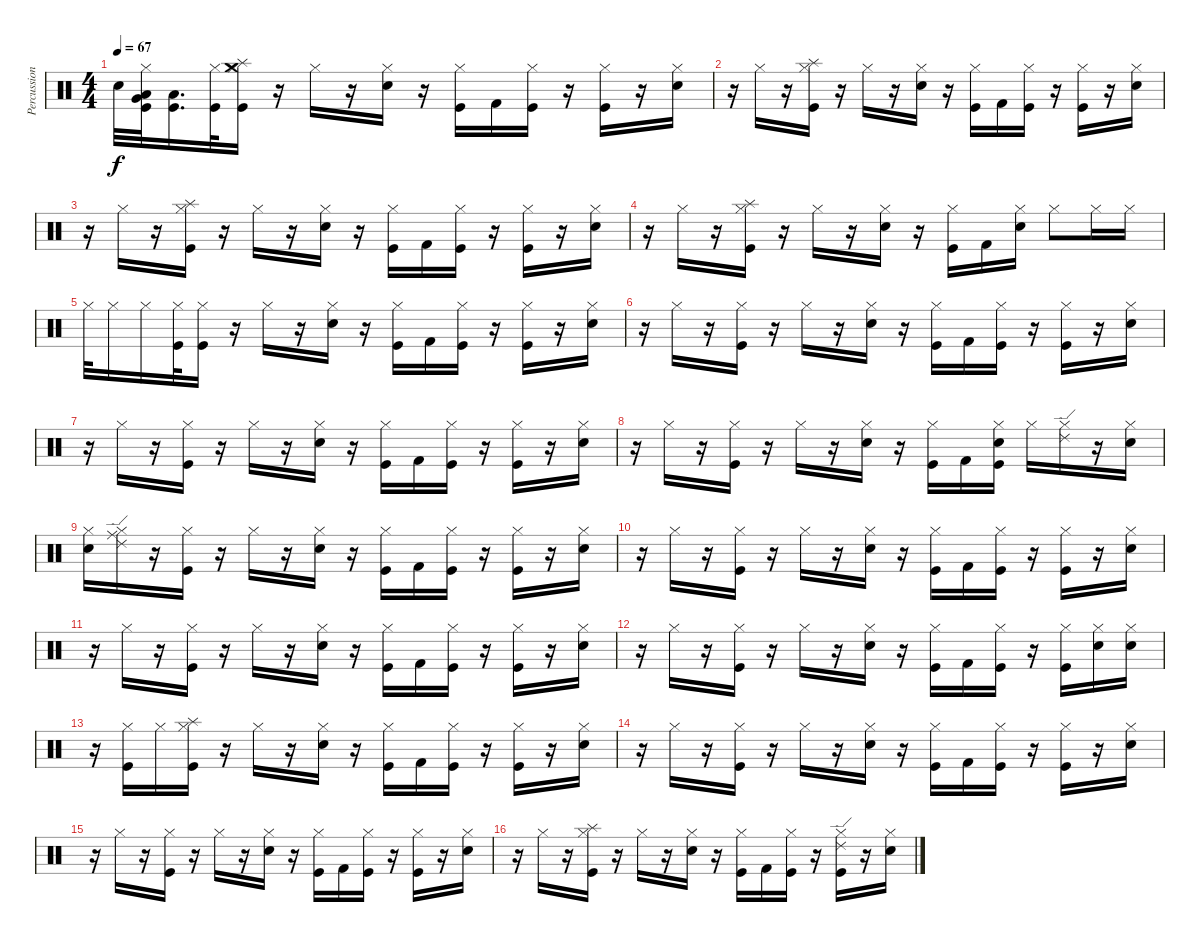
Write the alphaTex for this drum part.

\track ("Percussion" "Percussion") {instrument percussion}
\staff {score}
\articulation defaults
\ts (4 4)
\tempo 67
\clef neutral
\ks c "Snare (hit)"{t}.32{dy f}
("Kick (hit)" "Very Low Tom (hit)" "Hi-Hat (closed)" "Low Tom (hit)").32 ("Kick (hit)" "Low Tom (hit)").16{d} ("Kick (hit)" "Hi-Hat (closed)").32 ("Hi-Hat (closed)" "Kick (hit)" "Crash medium (hit)" "Splash (hit)").16 r.16 "Hi-Hat (closed)".16 r.16 ("Hi-Hat (closed)" "Electric Snare (hit)").16 r.16 ("Hi-Hat (closed)" "Kick (hit)").16 "Kick (hit) 2".16 ("Hi-Hat (closed)" "Kick (hit)").16 r.16 ("Hi-Hat (closed)" "Kick (hit)").16 r.16 ("Hi-Hat (closed)" "Electric Snare (hit)").16 |
r.16 "Hi-Hat (closed)".16 r.16 ("Hi-Hat (closed)" "Kick (hit)" "Splash (hit)").16 r.16 "Hi-Hat (closed)".16 r.16 ("Hi-Hat (closed)" "Electric Snare (hit)").16 r.16 ("Hi-Hat (closed)" "Kick (hit)").16 "Kick (hit) 2".16 ("Hi-Hat (closed)" "Kick (hit)").16 r.16 ("Hi-Hat (closed)" "Kick (hit)").16 r.16 ("Hi-Hat (closed)" "Electric Snare (hit)").16 |
r.16 "Hi-Hat (closed)".16 r.16 ("Hi-Hat (closed)" "Kick (hit)" "Splash (hit)").16 r.16 "Hi-Hat (closed)".16 r.16 ("Hi-Hat (closed)" "Electric Snare (hit)").16 r.16 ("Hi-Hat (closed)" "Kick (hit)").16 "Kick (hit) 2".16 ("Hi-Hat (closed)" "Kick (hit)").16 r.16 ("Hi-Hat (closed)" "Kick (hit)").16 r.16 ("Hi-Hat (closed)" "Electric Snare (hit)").16 |
r.16 "Hi-Hat (closed)".16 r.16 ("Hi-Hat (closed)" "Kick (hit)" "Splash (hit)").16 r.16 "Hi-Hat (closed)".16 r.16 ("Hi-Hat (closed)" "Electric Snare (hit)").16 r.16 ("Hi-Hat (closed)" "Kick (hit)").16 "Kick (hit) 2".16 ("Hi-Hat (closed)" "Electric Snare (hit)").16 "Hi-Hat (closed)".8 "Hi-Hat (closed)".16 "Hi-Hat (closed)".16 |
"Hi-Hat (closed)".32 "Hi-Hat (closed)".16 "Hi-Hat (closed)".16 ("Hi-Hat (closed)" "Kick (hit)").32 ("Hi-Hat (closed)" "Kick (hit)").16 r.16 "Hi-Hat (closed)".16 r.16 ("Hi-Hat (closed)" "Electric Snare (hit)").16 r.16 ("Hi-Hat (closed)" "Kick (hit)").16 "Kick (hit) 2".16 ("Hi-Hat (closed)" "Kick (hit)").16 r.16 ("Hi-Hat (closed)" "Kick (hit)").16 r.16 ("Hi-Hat (closed)" "Electric Snare (hit)").16 |
r.16 "Hi-Hat (closed)".16 r.16 ("Hi-Hat (closed)" "Kick (hit)").16 r.16 "Hi-Hat (closed)".16 r.16 ("Hi-Hat (closed)" "Electric Snare (hit)").16 r.16 ("Hi-Hat (closed)" "Kick (hit)").16 "Kick (hit) 2".16 ("Hi-Hat (closed)" "Kick (hit)").16 r.16 ("Hi-Hat (closed)" "Kick (hit)").16 r.16 ("Hi-Hat (closed)" "Electric Snare (hit)").16 |
r.16 "Hi-Hat (closed)".16 r.16 ("Hi-Hat (closed)" "Kick (hit)").16 r.16 "Hi-Hat (closed)".16 r.16 ("Hi-Hat (closed)" "Electric Snare (hit)").16 r.16 ("Hi-Hat (closed)" "Kick (hit)").16 "Kick (hit) 2".16 ("Hi-Hat (closed)" "Kick (hit)").16 r.16 ("Hi-Hat (closed)" "Kick (hit)").16 r.16 ("Hi-Hat (closed)" "Electric Snare (hit)").16 |
r.16 "Hi-Hat (closed)".16 r.16 ("Hi-Hat (closed)" "Kick (hit)").16 r.16 "Hi-Hat (closed)".16 r.16 ("Hi-Hat (closed)" "Electric Snare (hit)").16 r.16 ("Hi-Hat (closed)" "Kick (hit)").16 "Kick (hit) 2".16 ("Hi-Hat (closed)" "Electric Snare (hit)" "Kick (hit)").16 "Hi-Hat (closed)".16 ("Hi-Hat (closed)" "Ride (edge) 2").16 r.16 ("Hi-Hat (closed)" "Electric Snare (hit)").16 |
("Hi-Hat (closed)" "Electric Snare (hit)").16 ("Hi-Hat (closed)" "Ride (edge) 2" "Ride (middle)").16 r.16 ("Hi-Hat (closed)" "Kick (hit)").16 r.16 "Hi-Hat (closed)".16 r.16 ("Hi-Hat (closed)" "Electric Snare (hit)").16 r.16 ("Hi-Hat (closed)" "Kick (hit)").16 "Kick (hit) 2".16 ("Hi-Hat (closed)" "Kick (hit)").16 r.16 ("Hi-Hat (closed)" "Kick (hit)").16 r.16 ("Hi-Hat (closed)" "Electric Snare (hit)").16 |
r.16 "Hi-Hat (closed)".16 r.16 ("Hi-Hat (closed)" "Kick (hit)").16 r.16 "Hi-Hat (closed)".16 r.16 ("Hi-Hat (closed)" "Electric Snare (hit)").16 r.16 ("Hi-Hat (closed)" "Kick (hit)").16 "Kick (hit) 2".16 ("Hi-Hat (closed)" "Kick (hit)").16 r.16 ("Hi-Hat (closed)" "Kick (hit)").16 r.16 ("Hi-Hat (closed)" "Electric Snare (hit)").16 |
r.16 "Hi-Hat (closed)".16 r.16 ("Hi-Hat (closed)" "Kick (hit)").16 r.16 "Hi-Hat (closed)".16 r.16 ("Hi-Hat (closed)" "Electric Snare (hit)").16 r.16 ("Hi-Hat (closed)" "Kick (hit)").16 "Kick (hit) 2".16 ("Hi-Hat (closed)" "Kick (hit)").16 r.16 ("Hi-Hat (closed)" "Kick (hit)").16 r.16 ("Hi-Hat (closed)" "Electric Snare (hit)").16 |
r.16 "Hi-Hat (closed)".16 r.16 ("Hi-Hat (closed)" "Kick (hit)").16 r.16 "Hi-Hat (closed)".16 r.16 ("Hi-Hat (closed)" "Electric Snare (hit)").16 r.16 ("Hi-Hat (closed)" "Kick (hit)").16 "Kick (hit) 2".16 ("Hi-Hat (closed)" "Kick (hit)").16 r.16 ("Hi-Hat (closed)" "Kick (hit)").16 ("Hi-Hat (closed)" "Electric Snare (hit)").16 ("Hi-Hat (closed)" "Electric Snare (hit)").16 |
r.16 ("Hi-Hat (closed)" "Kick (hit)").16 "Hi-Hat (closed)".16 ("Hi-Hat (closed)" "Kick (hit)" "Splash (hit)").16 r.16 "Hi-Hat (closed)".16 r.16 ("Hi-Hat (closed)" "Electric Snare (hit)").16 r.16 ("Hi-Hat (closed)" "Kick (hit)").16 "Kick (hit) 2".16 ("Hi-Hat (closed)" "Kick (hit)").16 r.16 ("Hi-Hat (closed)" "Kick (hit)").16 r.16 ("Hi-Hat (closed)" "Electric Snare (hit)").16 |
r.16 "Hi-Hat (closed)".16 r.16 ("Hi-Hat (closed)" "Kick (hit)").16 r.16 "Hi-Hat (closed)".16 r.16 ("Hi-Hat (closed)" "Electric Snare (hit)").16 r.16 ("Hi-Hat (closed)" "Kick (hit)").16 "Kick (hit) 2".16 ("Hi-Hat (closed)" "Kick (hit)").16 r.16 ("Hi-Hat (closed)" "Kick (hit)").16 r.16 ("Hi-Hat (closed)" "Electric Snare (hit)").16 |
r.16 "Hi-Hat (closed)".16 r.16 ("Hi-Hat (closed)" "Kick (hit)").16 r.16 "Hi-Hat (closed)".16 r.16 ("Hi-Hat (closed)" "Electric Snare (hit)").16 r.16 ("Hi-Hat (closed)" "Kick (hit)").16 "Kick (hit) 2".16 ("Hi-Hat (closed)" "Kick (hit)").16 r.16 ("Hi-Hat (closed)" "Kick (hit)").16 r.16 ("Hi-Hat (closed)" "Electric Snare (hit)").16 |
r.16 "Hi-Hat (closed)".16 r.16 ("Hi-Hat (closed)" "Kick (hit)" "Splash (hit)").16 r.16 "Hi-Hat (closed)".16 r.16 ("Hi-Hat (closed)" "Electric Snare (hit)").16 r.16 ("Hi-Hat (closed)" "Kick (hit)").16 "Kick (hit) 2".16 ("Hi-Hat (closed)" "Kick (hit)").16 r.16 ("Hi-Hat (closed)" "Kick (hit)" "Ride (edge) 2").16 r.16 ("Hi-Hat (closed)" "Electric Snare (hit)").16
